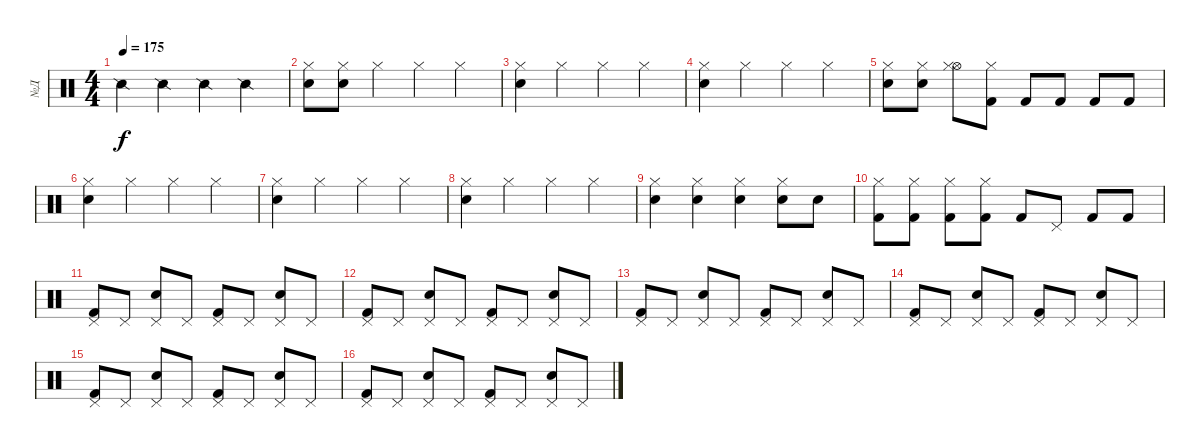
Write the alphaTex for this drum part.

\track ("№Д" "№Д") {instrument percussion}
\staff {score}
\articulation defaults
\ts (4 4)
\tempo 175
\clef neutral
\ks c "Snare (side stick) 2".4{dy f} "Snare (side stick) 2".4 "Snare (side stick) 2".4 "Snare (side stick) 2".4
|
("Snare (hit) 2" "Hi-Hat (closed)").8 ("Snare (hit) 2" "Hi-Hat (closed)").8 "Hi-Hat (closed)".4 "Hi-Hat (closed)".4 "Hi-Hat (closed)".4 |
("Snare (hit) 2" "Hi-Hat (closed)").4 "Hi-Hat (closed)".4 "Hi-Hat (closed)".4 "Hi-Hat (closed)".4 |
("Snare (hit) 2" "Hi-Hat (closed)").4 "Hi-Hat (closed)".4 "Hi-Hat (closed)".4 "Hi-Hat (closed)".4 |
("Snare (hit) 2" "Hi-Hat (closed)").8 ("Snare (hit) 2" "Hi-Hat (closed)").8 ("Hi-Hat (open)" "Hi-Hat (closed)").8 ("Kick (hit) 2" "Hi-Hat (closed)").8 "Kick (hit) 2".8 "Kick (hit) 2".8 "Kick (hit) 2".8 "Kick (hit) 2".8 |
("Snare (hit) 2" "Hi-Hat (closed)").4 "Hi-Hat (closed)".4 "Hi-Hat (closed)".4 "Hi-Hat (closed)".4 |
("Snare (hit) 2" "Hi-Hat (closed)").4 "Hi-Hat (closed)".4 "Hi-Hat (closed)".4 "Hi-Hat (closed)".4 |
("Snare (hit) 2" "Hi-Hat (closed)").4 "Hi-Hat (closed)".4 "Hi-Hat (closed)".4 "Hi-Hat (closed)".4 |
("Snare (hit) 2" "Hi-Hat (closed)").4 ("Snare (hit) 2" "Hi-Hat (closed)").4 ("Snare (hit) 2" "Hi-Hat (closed)").4 ("Snare (hit) 2" "Hi-Hat (closed)").8 "Snare (hit) 2".8 |
("Kick (hit) 2" "Hi-Hat (closed)").8 ("Kick (hit) 2" "Hi-Hat (closed)").8 ("Kick (hit) 2" "Hi-Hat (closed)").8 ("Kick (hit) 2" "Hi-Hat (closed)").8 "Kick (hit) 2".8 "Pedal Hi-Hat (hit)".8 "Kick (hit) 2".8 "Kick (hit) 2".8 |
("Pedal Hi-Hat (hit)" "Kick (hit) 2").8 "Pedal Hi-Hat (hit)".8 ("Pedal Hi-Hat (hit)" "Electric Snare (hit)").8 "Pedal Hi-Hat (hit)".8 ("Pedal Hi-Hat (hit)" "Kick (hit) 2").8 "Pedal Hi-Hat (hit)".8 ("Pedal Hi-Hat (hit)" "Electric Snare (hit)").8 "Pedal Hi-Hat (hit)".8 |
("Pedal Hi-Hat (hit)" "Kick (hit) 2").8 "Pedal Hi-Hat (hit)".8 ("Pedal Hi-Hat (hit)" "Electric Snare (hit)").8 "Pedal Hi-Hat (hit)".8 ("Pedal Hi-Hat (hit)" "Kick (hit) 2").8 "Pedal Hi-Hat (hit)".8 ("Pedal Hi-Hat (hit)" "Electric Snare (hit)").8 "Pedal Hi-Hat (hit)".8 |
("Pedal Hi-Hat (hit)" "Kick (hit) 2").8 "Pedal Hi-Hat (hit)".8 ("Pedal Hi-Hat (hit)" "Electric Snare (hit)").8 "Pedal Hi-Hat (hit)".8 ("Pedal Hi-Hat (hit)" "Kick (hit) 2").8 "Pedal Hi-Hat (hit)".8 ("Pedal Hi-Hat (hit)" "Electric Snare (hit)").8 "Pedal Hi-Hat (hit)".8 |
("Pedal Hi-Hat (hit)" "Kick (hit) 2").8 "Pedal Hi-Hat (hit)".8 ("Pedal Hi-Hat (hit)" "Electric Snare (hit)").8 "Pedal Hi-Hat (hit)".8 ("Pedal Hi-Hat (hit)" "Kick (hit) 2").8 "Pedal Hi-Hat (hit)".8 ("Pedal Hi-Hat (hit)" "Electric Snare (hit)").8 "Pedal Hi-Hat (hit)".8 |
("Pedal Hi-Hat (hit)" "Kick (hit) 2").8 "Pedal Hi-Hat (hit)".8 ("Pedal Hi-Hat (hit)" "Electric Snare (hit)").8 "Pedal Hi-Hat (hit)".8 ("Pedal Hi-Hat (hit)" "Kick (hit) 2").8 "Pedal Hi-Hat (hit)".8 ("Pedal Hi-Hat (hit)" "Electric Snare (hit)").8 "Pedal Hi-Hat (hit)".8 |
("Pedal Hi-Hat (hit)" "Kick (hit) 2").8 "Pedal Hi-Hat (hit)".8 ("Pedal Hi-Hat (hit)" "Electric Snare (hit)").8 "Pedal Hi-Hat (hit)".8 ("Pedal Hi-Hat (hit)" "Kick (hit) 2").8 "Pedal Hi-Hat (hit)".8 ("Pedal Hi-Hat (hit)" "Electric Snare (hit)").8 "Pedal Hi-Hat (hit)".8
